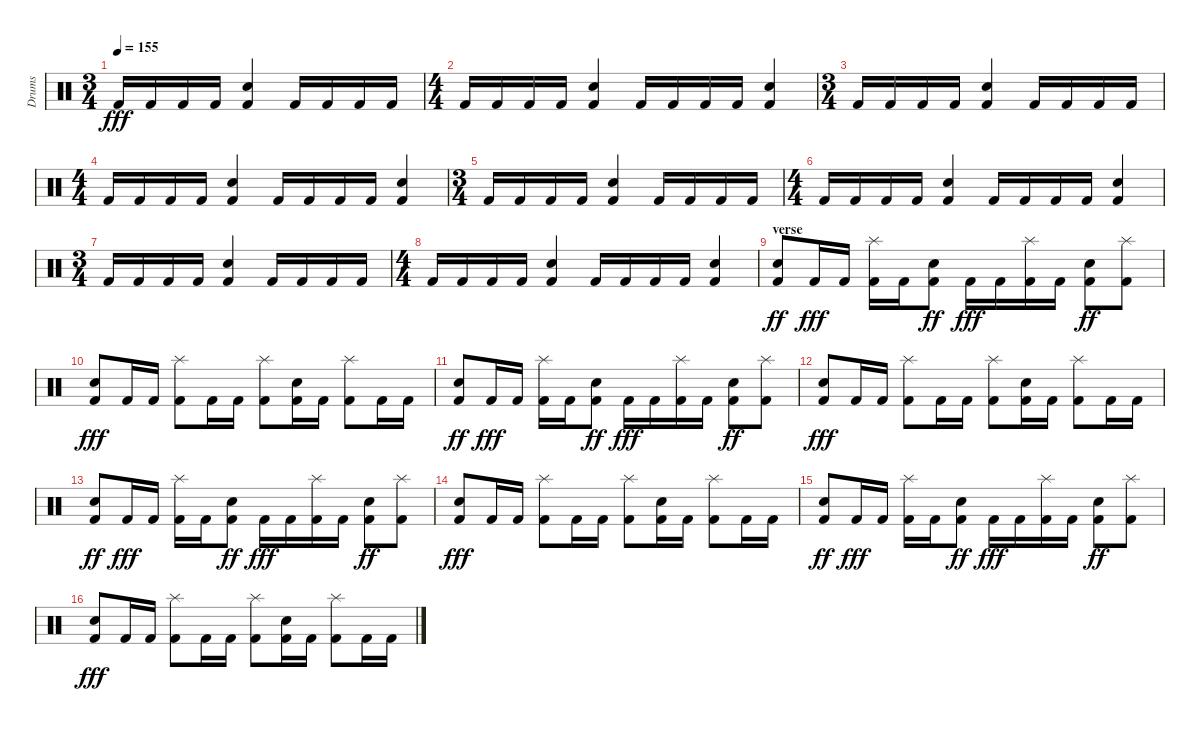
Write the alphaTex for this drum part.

\track ("Drums" "Drums") {instrument percussion}
\staff {score}
\articulation defaults
\ts (3 4)
\tempo 155
\clef neutral
\ks c "Kick (hit) 2".16{dy fff} "Kick (hit) 2".16 "Kick (hit) 2".16 "Kick (hit) 2".16
("Kick (hit) 2" "Snare (hit) 2").4 "Kick (hit) 2".16 "Kick (hit) 2".16 "Kick (hit) 2".16 "Kick (hit) 2".16 |
\ts (4 4)
"Kick (hit) 2".16 "Kick (hit) 2".16 "Kick (hit) 2".16 "Kick (hit) 2".16 ("Snare (hit) 2" "Kick (hit) 2").4 "Kick (hit) 2".16 "Kick (hit) 2".16 "Kick (hit) 2".16 "Kick (hit) 2".16 ("Snare (hit) 2" "Kick (hit) 2").4 |
\ts (3 4)
"Kick (hit) 2".16 "Kick (hit) 2".16 "Kick (hit) 2".16 "Kick (hit) 2".16 ("Kick (hit) 2" "Snare (hit) 2").4 "Kick (hit) 2".16 "Kick (hit) 2".16 "Kick (hit) 2".16 "Kick (hit) 2".16 |
\ts (4 4)
"Kick (hit) 2".16 "Kick (hit) 2".16 "Kick (hit) 2".16 "Kick (hit) 2".16 ("Snare (hit) 2" "Kick (hit) 2").4 "Kick (hit) 2".16 "Kick (hit) 2".16 "Kick (hit) 2".16 "Kick (hit) 2".16 ("Snare (hit) 2" "Kick (hit) 2").4 |
\ts (3 4)
"Kick (hit) 2".16 "Kick (hit) 2".16 "Kick (hit) 2".16 "Kick (hit) 2".16 ("Kick (hit) 2" "Snare (hit) 2").4 "Kick (hit) 2".16 "Kick (hit) 2".16 "Kick (hit) 2".16 "Kick (hit) 2".16 |
\ts (4 4)
"Kick (hit) 2".16 "Kick (hit) 2".16 "Kick (hit) 2".16 "Kick (hit) 2".16 ("Snare (hit) 2" "Kick (hit) 2").4 "Kick (hit) 2".16 "Kick (hit) 2".16 "Kick (hit) 2".16 "Kick (hit) 2".16 ("Snare (hit) 2" "Kick (hit) 2").4 |
\ts (3 4)
"Kick (hit) 2".16 "Kick (hit) 2".16 "Kick (hit) 2".16 "Kick (hit) 2".16 ("Kick (hit) 2" "Snare (hit) 2").4 "Kick (hit) 2".16 "Kick (hit) 2".16 "Kick (hit) 2".16 "Kick (hit) 2".16 |
\ts (4 4)
"Kick (hit) 2".16 "Kick (hit) 2".16 "Kick (hit) 2".16 "Kick (hit) 2".16 ("Snare (hit) 2" "Kick (hit) 2").4 "Kick (hit) 2".16 "Kick (hit) 2".16 "Kick (hit) 2".16 "Kick (hit) 2".16 ("Snare (hit) 2" "Kick (hit) 2").4 |
\section ("" "verse")
("Kick (hit) 2" "Electric Snare (hit)").8{dy ff} "Kick (hit) 2".16{dy fff} "Kick (hit) 2".16 ("Splash (hit)" "Kick (hit) 2").16 "Kick (hit) 2".16 ("Kick (hit) 2" "Electric Snare (hit)").8{dy ff} "Kick (hit) 2".16{dy fff} "Kick (hit) 2".16 ("Splash (hit)" "Kick (hit) 2").16 "Kick (hit) 2".16 ("Kick (hit) 2" "Electric Snare (hit)").8{dy ff} ("Kick (hit) 2" "Splash (hit)").8 |
("Electric Snare (hit)" "Kick (hit) 2").8{dy fff} "Kick (hit) 2".16 "Kick (hit) 2".16 ("Splash (hit)" "Kick (hit) 2").8 "Kick (hit) 2".16 "Kick (hit) 2".16 ("Splash (hit)" "Kick (hit) 2").8 ("Electric Snare (hit)" "Kick (hit) 2").16 "Kick (hit) 2".16 ("Splash (hit)" "Kick (hit) 2").8 "Kick (hit) 2".16 "Kick (hit) 2".16 |
("Kick (hit) 2" "Electric Snare (hit)").8{dy ff} "Kick (hit) 2".16{dy fff} "Kick (hit) 2".16 ("Splash (hit)" "Kick (hit) 2").16 "Kick (hit) 2".16 ("Kick (hit) 2" "Electric Snare (hit)").8{dy ff} "Kick (hit) 2".16{dy fff} "Kick (hit) 2".16 ("Splash (hit)" "Kick (hit) 2").16 "Kick (hit) 2".16 ("Kick (hit) 2" "Electric Snare (hit)").8{dy ff} ("Kick (hit) 2" "Splash (hit)").8 |
("Electric Snare (hit)" "Kick (hit) 2").8{dy fff} "Kick (hit) 2".16 "Kick (hit) 2".16 ("Splash (hit)" "Kick (hit) 2").8 "Kick (hit) 2".16 "Kick (hit) 2".16 ("Splash (hit)" "Kick (hit) 2").8 ("Electric Snare (hit)" "Kick (hit) 2").16 "Kick (hit) 2".16 ("Splash (hit)" "Kick (hit) 2").8 "Kick (hit) 2".16 "Kick (hit) 2".16 |
("Kick (hit) 2" "Electric Snare (hit)").8{dy ff} "Kick (hit) 2".16{dy fff} "Kick (hit) 2".16 ("Splash (hit)" "Kick (hit) 2").16 "Kick (hit) 2".16 ("Kick (hit) 2" "Electric Snare (hit)").8{dy ff} "Kick (hit) 2".16{dy fff} "Kick (hit) 2".16 ("Splash (hit)" "Kick (hit) 2").16 "Kick (hit) 2".16 ("Kick (hit) 2" "Electric Snare (hit)").8{dy ff} ("Kick (hit) 2" "Splash (hit)").8 |
("Electric Snare (hit)" "Kick (hit) 2").8{dy fff} "Kick (hit) 2".16 "Kick (hit) 2".16 ("Splash (hit)" "Kick (hit) 2").8 "Kick (hit) 2".16 "Kick (hit) 2".16 ("Splash (hit)" "Kick (hit) 2").8 ("Electric Snare (hit)" "Kick (hit) 2").16 "Kick (hit) 2".16 ("Splash (hit)" "Kick (hit) 2").8 "Kick (hit) 2".16 "Kick (hit) 2".16 |
("Kick (hit) 2" "Electric Snare (hit)").8{dy ff} "Kick (hit) 2".16{dy fff} "Kick (hit) 2".16 ("Splash (hit)" "Kick (hit) 2").16 "Kick (hit) 2".16 ("Kick (hit) 2" "Electric Snare (hit)").8{dy ff} "Kick (hit) 2".16{dy fff} "Kick (hit) 2".16 ("Splash (hit)" "Kick (hit) 2").16 "Kick (hit) 2".16 ("Kick (hit) 2" "Electric Snare (hit)").8{dy ff} ("Kick (hit) 2" "Splash (hit)").8 |
("Electric Snare (hit)" "Kick (hit) 2").8{dy fff} "Kick (hit) 2".16 "Kick (hit) 2".16 ("Splash (hit)" "Kick (hit) 2").8 "Kick (hit) 2".16 "Kick (hit) 2".16 ("Splash (hit)" "Kick (hit) 2").8 ("Electric Snare (hit)" "Kick (hit) 2").16 "Kick (hit) 2".16 ("Splash (hit)" "Kick (hit) 2").8 "Kick (hit) 2".16 "Kick (hit) 2".16
